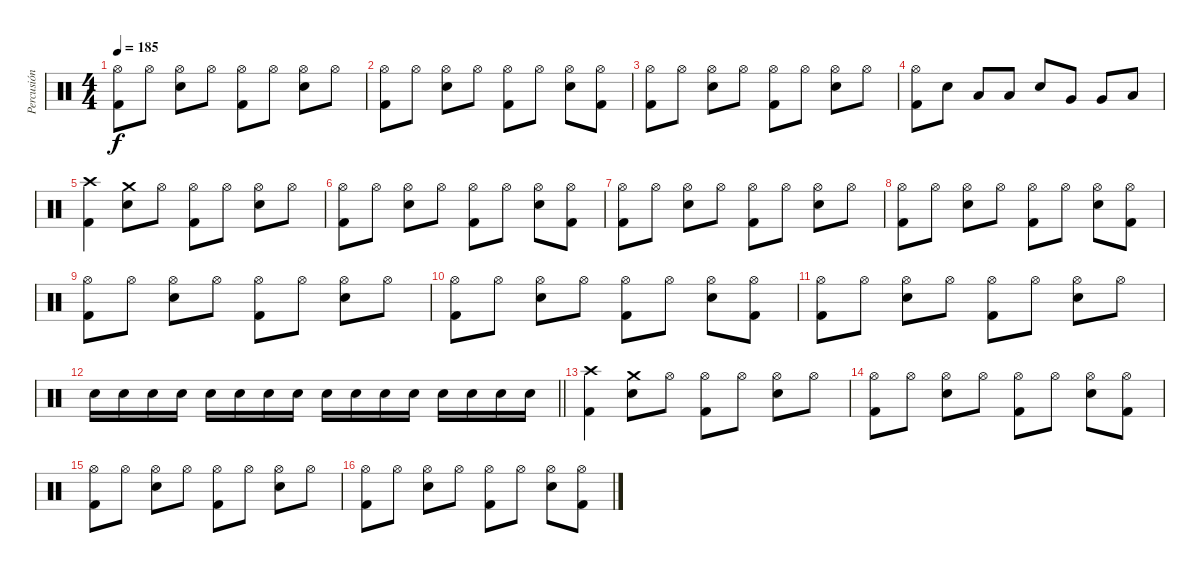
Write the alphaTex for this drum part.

\track ("Percusión" "Percusión") {instrument percussion}
\staff {score}
\articulation defaults
\ts (4 4)
\tempo 185
\clef neutral
\ks c
("Hi-Hat (open)" "Kick (hit) 2").8{dy f} "Hi-Hat (open)".8 ("Hi-Hat (open)" "Electric Snare (hit)").8 "Hi-Hat (open)".8 ("Hi-Hat (open)" "Kick (hit) 2").8 "Hi-Hat (open)".8 ("Hi-Hat (open)" "Electric Snare (hit)").8 "Hi-Hat (open)".8 |
("Hi-Hat (open)" "Kick (hit) 2").8 "Hi-Hat (open)".8 ("Hi-Hat (open)" "Electric Snare (hit)").8 "Hi-Hat (open)".8 ("Hi-Hat (open)" "Kick (hit) 2").8 "Hi-Hat (open)".8 ("Hi-Hat (open)" "Electric Snare (hit)").8 ("Hi-Hat (open)" "Kick (hit) 2").8 |
("Hi-Hat (open)" "Kick (hit) 2").8 "Hi-Hat (open)".8 ("Hi-Hat (open)" "Electric Snare (hit)").8 "Hi-Hat (open)".8 ("Hi-Hat (open)" "Kick (hit) 2").8 "Hi-Hat (open)".8 ("Hi-Hat (open)" "Electric Snare (hit)").8 "Hi-Hat (open)".8 |
("Hi-Hat (open)" "Kick (hit) 2").8 "Electric Snare (hit)".8 "Low Tom (hit)".8 "Low Tom (hit)".8 "Electric Snare (hit)".8 "Very Low Tom (hit)".8 "Very Low Tom (hit)".8 "Low Floor Tom (hit)".8 |
("Crash high (hit)" "Kick (hit) 2").4 ("Crash medium (hit)" "Electric Snare (hit)").8 "Hi-Hat (open)".8 ("Hi-Hat (open)" "Kick (hit) 2").8 "Hi-Hat (open)".8 ("Hi-Hat (open)" "Electric Snare (hit)").8 "Hi-Hat (open)".8 |
("Hi-Hat (open)" "Kick (hit) 2").8 "Hi-Hat (open)".8 ("Hi-Hat (open)" "Electric Snare (hit)").8 "Hi-Hat (open)".8 ("Hi-Hat (open)" "Kick (hit) 2").8 "Hi-Hat (open)".8 ("Hi-Hat (open)" "Electric Snare (hit)").8 ("Hi-Hat (open)" "Kick (hit) 2").8 |
("Hi-Hat (open)" "Kick (hit) 2").8 "Hi-Hat (open)".8 ("Hi-Hat (open)" "Electric Snare (hit)").8 "Hi-Hat (open)".8 ("Hi-Hat (open)" "Kick (hit) 2").8 "Hi-Hat (open)".8 ("Hi-Hat (open)" "Electric Snare (hit)").8 "Hi-Hat (open)".8 |
("Hi-Hat (open)" "Kick (hit) 2").8 "Hi-Hat (open)".8 ("Hi-Hat (open)" "Electric Snare (hit)").8 "Hi-Hat (open)".8 ("Hi-Hat (open)" "Kick (hit) 2").8 "Hi-Hat (open)".8 ("Hi-Hat (open)" "Electric Snare (hit)").8 ("Hi-Hat (open)" "Kick (hit) 2").8 |
("Hi-Hat (open)" "Kick (hit) 2").8 "Hi-Hat (open)".8 ("Hi-Hat (open)" "Electric Snare (hit)").8 "Hi-Hat (open)".8 ("Hi-Hat (open)" "Kick (hit) 2").8 "Hi-Hat (open)".8 ("Hi-Hat (open)" "Electric Snare (hit)").8 "Hi-Hat (open)".8 |
("Hi-Hat (open)" "Kick (hit) 2").8 "Hi-Hat (open)".8 ("Hi-Hat (open)" "Electric Snare (hit)").8 "Hi-Hat (open)".8 ("Hi-Hat (open)" "Kick (hit) 2").8 "Hi-Hat (open)".8 ("Hi-Hat (open)" "Electric Snare (hit)").8 ("Hi-Hat (open)" "Kick (hit) 2").8 |
("Hi-Hat (open)" "Kick (hit) 2").8 "Hi-Hat (open)".8 ("Hi-Hat (open)" "Electric Snare (hit)").8 "Hi-Hat (open)".8 ("Hi-Hat (open)" "Kick (hit) 2").8 "Hi-Hat (open)".8 ("Hi-Hat (open)" "Electric Snare (hit)").8 "Hi-Hat (open)".8 |
\barLineRight lightlight "Electric Snare (hit)".16 "Electric Snare (hit)".16 "Electric Snare (hit)".16 "Electric Snare (hit)".16 "Electric Snare (hit)".16 "Electric Snare (hit)".16 "Electric Snare (hit)".16 "Electric Snare (hit)".16 "Electric Snare (hit)".16 "Electric Snare (hit)".16 "Electric Snare (hit)".16 "Electric Snare (hit)".16 "Electric Snare (hit)".16 "Electric Snare (hit)".16 "Electric Snare (hit)".16 "Electric Snare (hit)".16
|
\section ("" "")
("Crash high (hit)" "Kick (hit) 2").4 ("Crash medium (hit)" "Electric Snare (hit)").8 "Hi-Hat (open)".8 ("Hi-Hat (open)" "Kick (hit) 2").8 "Hi-Hat (open)".8 ("Hi-Hat (open)" "Electric Snare (hit)").8 "Hi-Hat (open)".8 |
("Hi-Hat (open)" "Kick (hit) 2").8 "Hi-Hat (open)".8 ("Hi-Hat (open)" "Electric Snare (hit)").8 "Hi-Hat (open)".8 ("Hi-Hat (open)" "Kick (hit) 2").8 "Hi-Hat (open)".8 ("Hi-Hat (open)" "Electric Snare (hit)").8 ("Hi-Hat (open)" "Kick (hit) 2").8 |
("Hi-Hat (open)" "Kick (hit) 2").8 "Hi-Hat (open)".8 ("Hi-Hat (open)" "Electric Snare (hit)").8 "Hi-Hat (open)".8 ("Hi-Hat (open)" "Kick (hit) 2").8 "Hi-Hat (open)".8 ("Hi-Hat (open)" "Electric Snare (hit)").8 "Hi-Hat (open)".8 |
("Hi-Hat (open)" "Kick (hit) 2").8 "Hi-Hat (open)".8 ("Hi-Hat (open)" "Electric Snare (hit)").8 "Hi-Hat (open)".8 ("Hi-Hat (open)" "Kick (hit) 2").8 "Hi-Hat (open)".8 ("Hi-Hat (open)" "Electric Snare (hit)").8 ("Hi-Hat (open)" "Kick (hit) 2").8
